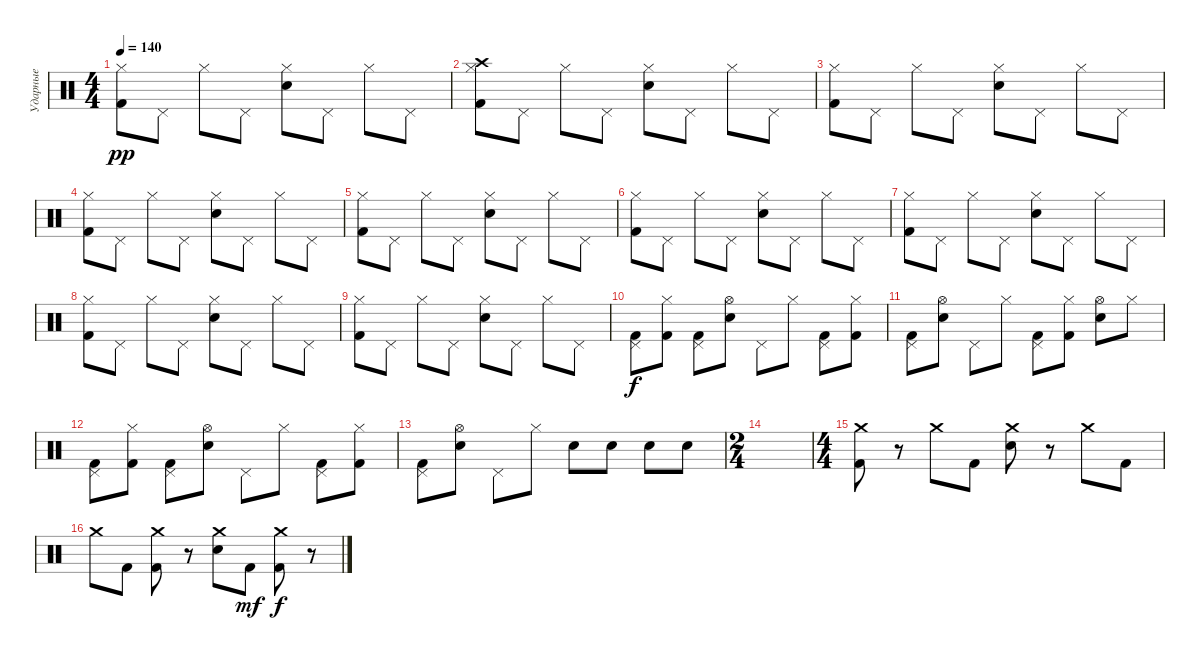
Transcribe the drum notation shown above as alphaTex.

\track ("Ударные" "Ударные") {instrument percussion}
\staff {score}
\articulation defaults
\ts (4 4)
\tempo 140
\clef neutral
\ks c
("Hi-Hat (closed)" "Kick (hit) 2").8{dy pp} "Pedal Hi-Hat (hit)".8 "Hi-Hat (closed)".8 "Pedal Hi-Hat (hit)".8 ("Hi-Hat (closed)" "Snare (hit) 2").8 "Pedal Hi-Hat (hit)".8 "Hi-Hat (closed)".8 "Pedal Hi-Hat (hit)".8 |
("Hi-Hat (closed)" "Crash high (hit)" "Kick (hit) 2").8 "Pedal Hi-Hat (hit)".8 "Hi-Hat (closed)".8 "Pedal Hi-Hat (hit)".8 ("Hi-Hat (closed)" "Snare (hit) 2").8 "Pedal Hi-Hat (hit)".8 "Hi-Hat (closed)".8 "Pedal Hi-Hat (hit)".8 |
("Hi-Hat (closed)" "Kick (hit) 2").8 "Pedal Hi-Hat (hit)".8 "Hi-Hat (closed)".8 "Pedal Hi-Hat (hit)".8 ("Hi-Hat (closed)" "Snare (hit) 2").8 "Pedal Hi-Hat (hit)".8 "Hi-Hat (closed)".8 "Pedal Hi-Hat (hit)".8 |
("Hi-Hat (closed)" "Kick (hit) 2").8 "Pedal Hi-Hat (hit)".8 "Hi-Hat (closed)".8 "Pedal Hi-Hat (hit)".8 ("Hi-Hat (closed)" "Snare (hit) 2").8 "Pedal Hi-Hat (hit)".8 "Hi-Hat (closed)".8 "Pedal Hi-Hat (hit)".8 |
("Hi-Hat (closed)" "Kick (hit) 2").8 "Pedal Hi-Hat (hit)".8 "Hi-Hat (closed)".8 "Pedal Hi-Hat (hit)".8 ("Hi-Hat (closed)" "Snare (hit) 2").8 "Pedal Hi-Hat (hit)".8 "Hi-Hat (closed)".8 "Pedal Hi-Hat (hit)".8 |
("Hi-Hat (closed)" "Kick (hit) 2").8 "Pedal Hi-Hat (hit)".8 "Hi-Hat (closed)".8 "Pedal Hi-Hat (hit)".8 ("Hi-Hat (closed)" "Snare (hit) 2").8 "Pedal Hi-Hat (hit)".8 "Hi-Hat (closed)".8 "Pedal Hi-Hat (hit)".8 |
("Hi-Hat (closed)" "Kick (hit) 2").8 "Pedal Hi-Hat (hit)".8 "Hi-Hat (closed)".8 "Pedal Hi-Hat (hit)".8 ("Hi-Hat (closed)" "Snare (hit) 2").8 "Pedal Hi-Hat (hit)".8 "Hi-Hat (closed)".8 "Pedal Hi-Hat (hit)".8 |
("Hi-Hat (closed)" "Kick (hit) 2").8 "Pedal Hi-Hat (hit)".8 "Hi-Hat (closed)".8 "Pedal Hi-Hat (hit)".8 ("Hi-Hat (closed)" "Snare (hit) 2").8 "Pedal Hi-Hat (hit)".8 "Hi-Hat (closed)".8 "Pedal Hi-Hat (hit)".8 |
("Hi-Hat (closed)" "Kick (hit) 2").8 "Pedal Hi-Hat (hit)".8 "Hi-Hat (closed)".8 "Pedal Hi-Hat (hit)".8 ("Hi-Hat (closed)" "Snare (hit) 2").8 "Pedal Hi-Hat (hit)".8 "Hi-Hat (closed)".8 "Pedal Hi-Hat (hit)".8 |
("Pedal Hi-Hat (hit)" "Kick (hit) 2").8{dy f} ("Hi-Hat (closed)" "Kick (hit) 2").8 ("Pedal Hi-Hat (hit)" "Kick (hit) 2").8 ("Hi-Hat (open)" "Snare (hit) 2").8 "Pedal Hi-Hat (hit)".8 "Hi-Hat (closed)".8 ("Pedal Hi-Hat (hit)" "Kick (hit) 2").8 ("Hi-Hat (closed)" "Kick (hit) 2").8 |
("Pedal Hi-Hat (hit)" "Kick (hit) 2").8 ("Hi-Hat (open)" "Snare (hit) 2").8 "Pedal Hi-Hat (hit)".8 "Hi-Hat (closed)".8 ("Pedal Hi-Hat (hit)" "Kick (hit) 2").8 ("Hi-Hat (closed)" "Kick (hit) 2").8 ("Hi-Hat (open)" "Snare (hit) 2").8 "Hi-Hat (closed)".8 |
("Pedal Hi-Hat (hit)" "Kick (hit) 2").8 ("Hi-Hat (closed)" "Kick (hit) 2").8 ("Pedal Hi-Hat (hit)" "Kick (hit) 2").8 ("Hi-Hat (open)" "Snare (hit) 2").8 "Pedal Hi-Hat (hit)".8 "Hi-Hat (closed)".8 ("Pedal Hi-Hat (hit)" "Kick (hit) 2").8 ("Hi-Hat (closed)" "Kick (hit) 2").8 |
("Pedal Hi-Hat (hit)" "Kick (hit) 2").8 ("Hi-Hat (open)" "Snare (hit) 2").8 "Pedal Hi-Hat (hit)".8 "Hi-Hat (closed)".8 "Snare (hit) 2".8 "Snare (hit) 2".8 "Snare (hit) 2".8 "Snare (hit) 2".8 |
\ts (2 4)
|
\ts (4 4)
("Crash medium (hit)" "Kick (hit) 2").8 r.8 "Crash medium (hit)".8 "Kick (hit) 2".8 ("Crash medium (hit)" "Snare (hit) 2").8 r.8 "Crash medium (hit)".8 "Kick (hit) 2".8 |
"Crash medium (hit)".8 "Kick (hit) 2".8 ("Crash medium (hit)" "Kick (hit) 2").8 r.8 ("Crash medium (hit)" "Snare (hit) 2").8 "Kick (hit) 2".8{dy mf} ("Crash medium (hit)" "Kick (hit) 2").8{dy f} r.8
